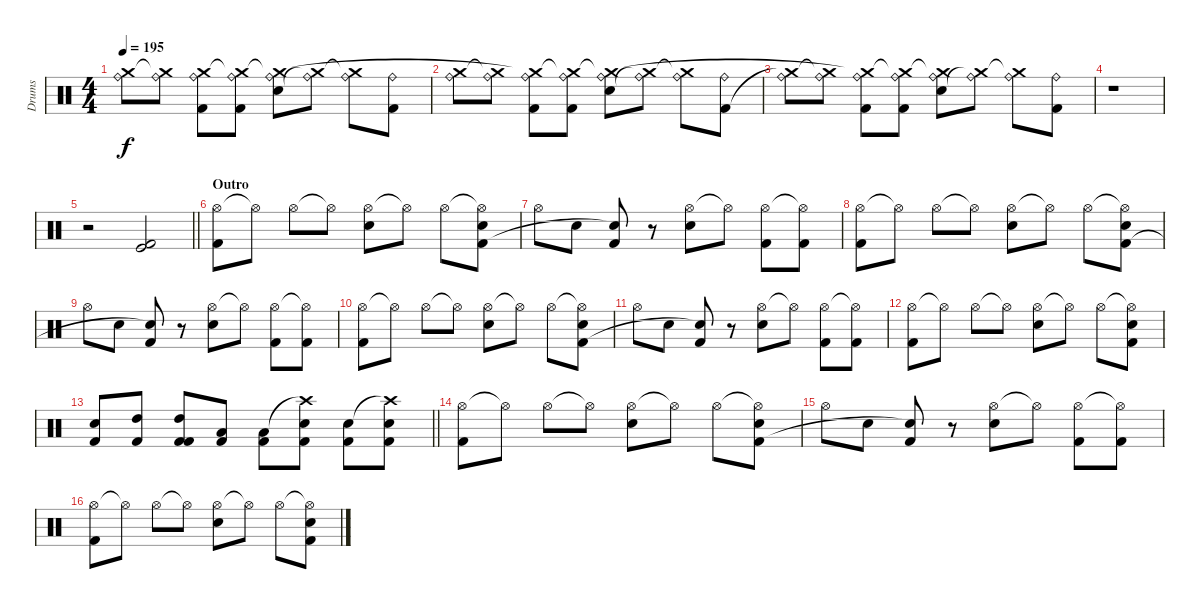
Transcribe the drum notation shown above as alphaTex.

\track ("Drums" "Drums") {instrument percussion}
\staff {score}
\articulation defaults
\ts (4 4)
\tempo 195
\clef neutral
\ks c
("Ride (bell)" "Crash medium (hit)"{t}).8{dy f} ("Ride (bell)" "Crash medium (hit)"{t}).8 ("Ride (bell)" "Kick (hit) 2" "Crash medium (hit)"{t}).8 ("Ride (bell)" "Kick (hit) 2" "Crash medium (hit)"{t}).8 ("Ride (bell)" "Snare (hit) 2" "Crash medium (hit)"{t}).8 ("Ride (bell)" "Crash medium (hit)"{t}).8 ("Ride (bell)" "Crash medium (hit)"{t}).8 ("Ride (bell)" "Kick (hit) 2").8 |
("Ride (bell)" "Crash medium (hit)").8 ("Ride (bell)" "Crash medium (hit)"{t}).8 ("Ride (bell)" "Kick (hit) 2" "Crash medium (hit)"{t}).8 ("Ride (bell)" "Kick (hit) 2" "Crash medium (hit)"{t}).8 ("Ride (bell)" "Snare (hit) 2" "Crash medium (hit)"{t}).8 ("Ride (bell)" "Crash medium (hit)"{t}).8 ("Ride (bell)" "Crash medium (hit)"{t}).8 ("Ride (bell)" "Kick (hit) 2").8 |
("Ride (bell)" "Crash medium (hit)"{t}).8 ("Ride (bell)" "Crash medium (hit)"{t}).8 ("Ride (bell)" "Kick (hit) 2" "Crash medium (hit)"{t}).8 ("Ride (bell)" "Kick (hit) 2" "Crash medium (hit)"{t}).8 ("Ride (bell)" "Snare (hit) 2" "Crash medium (hit)"{t}).8 ("Ride (bell)" "Crash medium (hit)"{t}).8 ("Ride (bell)" "Crash medium (hit)"{t}).8 ("Ride (bell)" "Kick (hit) 2").8 |
r.1 |
\barLineRight lightlight
r.2 ("Kick (hit) 2" "Kick (hit)").2 |
\section ("" "Outro")
("Hi-Hat (open)" "Kick (hit) 2").8 "Hi-Hat (open)"{t}.8 "Hi-Hat (open)".8 "Hi-Hat (open)"{t}.8 ("Hi-Hat (open)" "Snare (hit) 2").8 "Hi-Hat (open)"{t}.8 "Hi-Hat (open)".8 ("Hi-Hat (open)"{t} "Kick (hit) 2" "Snare (hit) 2").8 |
"Hi-Hat (open)".8 "Snare (hit) 2".8 ("Kick (hit) 2" "Snare (hit) 2"{t}).8 r.8 ("Hi-Hat (open)" "Snare (hit) 2").8 "Hi-Hat (open)"{t}.8 ("Hi-Hat (open)" "Kick (hit) 2").8 ("Hi-Hat (open)"{t} "Kick (hit) 2").8 |
("Hi-Hat (open)" "Kick (hit) 2").8 "Hi-Hat (open)"{t}.8 "Hi-Hat (open)".8 "Hi-Hat (open)"{t}.8 ("Hi-Hat (open)" "Snare (hit) 2").8 "Hi-Hat (open)"{t}.8 "Hi-Hat (open)".8 ("Hi-Hat (open)"{t} "Kick (hit) 2" "Snare (hit) 2").8 |
"Hi-Hat (open)".8 "Snare (hit) 2".8 ("Kick (hit) 2" "Snare (hit) 2"{t}).8 r.8 ("Hi-Hat (open)" "Snare (hit) 2").8 "Hi-Hat (open)"{t}.8 ("Hi-Hat (open)" "Kick (hit) 2").8 ("Hi-Hat (open)"{t} "Kick (hit) 2").8 |
("Hi-Hat (open)" "Kick (hit) 2").8 "Hi-Hat (open)"{t}.8 "Hi-Hat (open)".8 "Hi-Hat (open)"{t}.8 ("Hi-Hat (open)" "Snare (hit) 2").8 "Hi-Hat (open)"{t}.8 "Hi-Hat (open)".8 ("Hi-Hat (open)"{t} "Kick (hit) 2" "Snare (hit) 2").8 |
"Hi-Hat (open)".8 "Snare (hit) 2".8 ("Kick (hit) 2" "Snare (hit) 2"{t}).8 r.8 ("Hi-Hat (open)" "Snare (hit) 2").8 "Hi-Hat (open)"{t}.8 ("Hi-Hat (open)" "Kick (hit) 2").8 ("Hi-Hat (open)"{t} "Kick (hit) 2").8 |
("Hi-Hat (open)" "Kick (hit) 2").8 "Hi-Hat (open)"{t}.8 "Hi-Hat (open)".8 "Hi-Hat (open)"{t}.8 ("Hi-Hat (open)" "Snare (hit) 2").8 "Hi-Hat (open)"{t}.8 "Hi-Hat (open)".8 ("Hi-Hat (open)"{t} "Kick (hit) 2" "Snare (hit) 2").8 |
\barLineRight lightlight
("Snare (hit) 2" "Kick (hit) 2").8 ("High Tom (hit)" "Kick (hit) 2").8 ("Kick (hit) 2" "High Tom (hit)" "Kick (hit) 2").8 ("Low Tom (hit)" "Kick (hit) 2").8 ("Low Tom (hit)" "Kick (hit) 2").8 ("Crash high (hit)"{t} "Snare (hit) 2" "Kick (hit) 2").8 ("Snare (hit) 2" "Kick (hit) 2").8 ("Crash high (hit)"{t} "Snare (hit) 2" "Kick (hit) 2").8 |
("Hi-Hat (open)" "Kick (hit) 2").8 "Hi-Hat (open)"{t}.8 "Hi-Hat (open)".8 "Hi-Hat (open)"{t}.8 ("Hi-Hat (open)" "Snare (hit) 2").8 "Hi-Hat (open)"{t}.8 "Hi-Hat (open)".8 ("Hi-Hat (open)"{t} "Kick (hit) 2" "Snare (hit) 2").8 |
"Hi-Hat (open)".8 "Snare (hit) 2".8 ("Kick (hit) 2" "Snare (hit) 2"{t}).8 r.8 ("Hi-Hat (open)" "Snare (hit) 2").8 "Hi-Hat (open)"{t}.8 ("Hi-Hat (open)" "Kick (hit) 2").8 ("Hi-Hat (open)"{t} "Kick (hit) 2").8 |
("Hi-Hat (open)" "Kick (hit) 2").8 "Hi-Hat (open)"{t}.8 "Hi-Hat (open)".8 "Hi-Hat (open)"{t}.8 ("Hi-Hat (open)" "Snare (hit) 2").8 "Hi-Hat (open)"{t}.8 "Hi-Hat (open)".8 ("Hi-Hat (open)"{t} "Kick (hit) 2" "Snare (hit) 2").8
